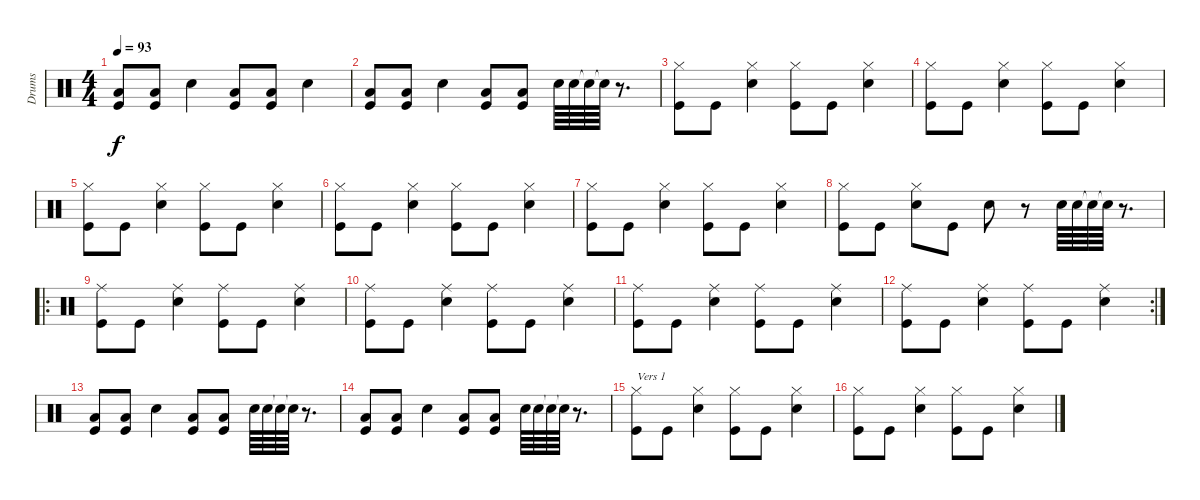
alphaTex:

\track ("Drums" "Drums") {instrument percussion}
\staff {score}
\articulation defaults
\ts (4 4)
\tempo 93
\clef neutral
\ks c
("Kick (hit)" "Low Floor Tom (hit)").8{dy f} ("Kick (hit)" "Low Floor Tom (hit)").8 "Snare (hit) 2".4 ("Kick (hit)" "Low Floor Tom (hit)").8 ("Kick (hit)" "Low Floor Tom (hit)").8 "Snare (hit) 2".4 |
("Kick (hit)" "Low Floor Tom (hit)").8 ("Kick (hit)" "Low Floor Tom (hit)").8 "Snare (hit) 2".4 ("Kick (hit)" "Low Floor Tom (hit)").8 ("Kick (hit)" "Low Floor Tom (hit)").8 "Snare (hit) 2".64 "Snare (hit) 2".64 "Snare (hit) 2"{t}.64 "Snare (hit) 2"{t}.64 r.8{d} |
("Hi-Hat (closed)" "Kick (hit)").8 "Kick (hit)".8 ("Hi-Hat (closed)" "Snare (hit) 2").4 ("Hi-Hat (closed)" "Kick (hit)").8 "Kick (hit)".8 ("Hi-Hat (closed)" "Snare (hit) 2").4 |
("Hi-Hat (closed)" "Kick (hit)").8 "Kick (hit)".8 ("Hi-Hat (closed)" "Snare (hit) 2").4 ("Hi-Hat (closed)" "Kick (hit)").8 "Kick (hit)".8 ("Hi-Hat (closed)" "Snare (hit) 2").4 |
("Hi-Hat (closed)" "Kick (hit)").8 "Kick (hit)".8 ("Hi-Hat (closed)" "Snare (hit) 2").4 ("Hi-Hat (closed)" "Kick (hit)").8 "Kick (hit)".8 ("Hi-Hat (closed)" "Snare (hit) 2").4 |
("Hi-Hat (closed)" "Kick (hit)").8 "Kick (hit)".8 ("Hi-Hat (closed)" "Snare (hit) 2").4 ("Hi-Hat (closed)" "Kick (hit)").8 "Kick (hit)".8 ("Hi-Hat (closed)" "Snare (hit) 2").4 |
("Hi-Hat (closed)" "Kick (hit)").8 "Kick (hit)".8 ("Hi-Hat (closed)" "Snare (hit) 2").4 ("Hi-Hat (closed)" "Kick (hit)").8 "Kick (hit)".8 ("Hi-Hat (closed)" "Snare (hit) 2").4 |
("Hi-Hat (closed)" "Kick (hit)").8 "Kick (hit)".8 ("Hi-Hat (closed)" "Snare (hit) 2").8 "Kick (hit)".8 "Snare (hit) 2".8 r.8 "Snare (hit) 2".64 "Snare (hit) 2".64 "Snare (hit) 2"{t}.64 "Snare (hit) 2"{t}.64 r.8{d} |
\ro
("Ride (middle)" "Kick (hit)").8 "Kick (hit)".8 ("Ride (middle)" "Snare (hit) 2").4 ("Ride (middle)" "Kick (hit)").8 "Kick (hit)".8 ("Ride (middle)" "Snare (hit) 2").4 |
("Ride (middle)" "Kick (hit)").8 "Kick (hit)".8 ("Ride (middle)" "Snare (hit) 2").4 ("Ride (middle)" "Kick (hit)").8 "Kick (hit)".8 ("Ride (middle)" "Snare (hit) 2").4 |
("Ride (middle)" "Kick (hit)").8 "Kick (hit)".8 ("Ride (middle)" "Snare (hit) 2").4 ("Ride (middle)" "Kick (hit)").8 "Kick (hit)".8 ("Ride (middle)" "Snare (hit) 2").4 |
\rc 2
("Ride (middle)" "Kick (hit)").8 "Kick (hit)".8 ("Ride (middle)" "Snare (hit) 2").4 ("Ride (middle)" "Kick (hit)").8 "Kick (hit)".8 ("Ride (middle)" "Snare (hit) 2").4 |
("Kick (hit)" "Low Floor Tom (hit)").8 ("Kick (hit)" "Low Floor Tom (hit)").8 "Snare (hit) 2".4 ("Kick (hit)" "Low Floor Tom (hit)").8 ("Kick (hit)" "Low Floor Tom (hit)").8 "Snare (hit) 2".64 "Snare (hit) 2".64 "Snare (hit) 2"{t}.64 "Snare (hit) 2"{t}.64 r.8{d} |
("Kick (hit)" "Low Floor Tom (hit)").8 ("Kick (hit)" "Low Floor Tom (hit)").8 "Snare (hit) 2".4 ("Kick (hit)" "Low Floor Tom (hit)").8 ("Kick (hit)" "Low Floor Tom (hit)").8 "Snare (hit) 2".64 "Snare (hit) 2".64 "Snare (hit) 2"{t}.64 "Snare (hit) 2"{t}.64 r.8{d} |
("Hi-Hat (closed)" "Kick (hit)").8{txt "Vers 1"} "Kick (hit)".8 ("Hi-Hat (closed)" "Snare (hit) 2").4 ("Hi-Hat (closed)" "Kick (hit)").8 "Kick (hit)".8 ("Hi-Hat (closed)" "Snare (hit) 2").4 |
("Hi-Hat (closed)" "Kick (hit)").8 "Kick (hit)".8 ("Hi-Hat (closed)" "Snare (hit) 2").4 ("Hi-Hat (closed)" "Kick (hit)").8 "Kick (hit)".8 ("Hi-Hat (closed)" "Snare (hit) 2").4
